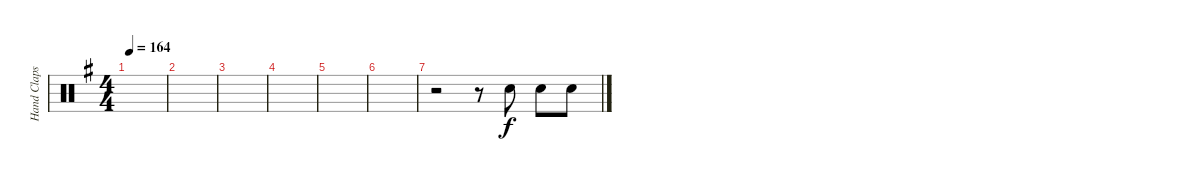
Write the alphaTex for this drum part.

\track ("Hand Claps" "Hand Claps") {instrument percussion}
\staff {score}
\articulation defaults
\ts (4 4)
\tempo 164
\clef neutral
\ks eminor
|
|
|
|
|
|
r.2 r.8 "Hand Clap (hit)".8 "Hand Clap (hit)".8 "Hand Clap (hit)".8
